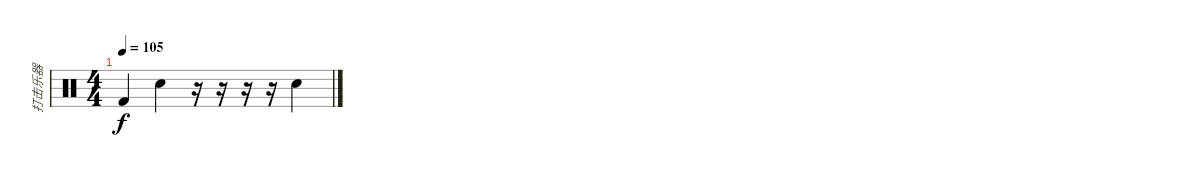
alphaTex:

\track ("打击乐器" "打击乐器") {instrument percussion}
\staff {score}
\articulation defaults
\ts (4 4)
\tempo 105
\clef neutral
\ks c "Kick (hit) 2".4{dy f} "Electric Snare (hit)".4
r.16 r.16 r.16 r.16 "Electric Snare (hit)".4
